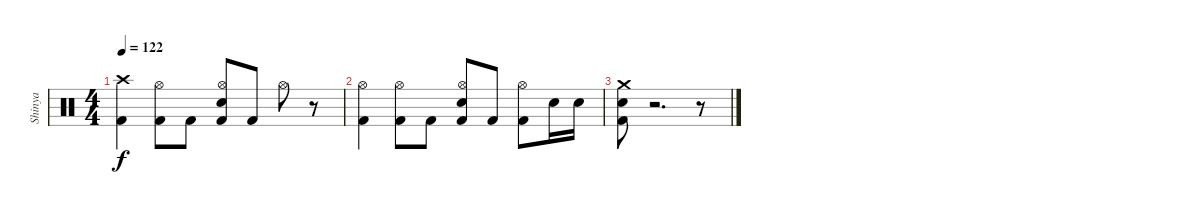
\track ("Shinya" "Shinya") {instrument percussion}
\staff {score}
\articulation defaults
\ts (4 4)
\tempo 122
\clef neutral
\ks c
("Crash high (hit)" "Kick (hit) 2").4{dy f} ("Hi-Hat (open)" "Kick (hit) 2").8 "Kick (hit) 2".8 ("Hi-Hat (open)" "Electric Snare (hit)" "Kick (hit) 2").8 "Kick (hit) 2".8 "Hi-Hat (open)".8 r.8 |
("Hi-Hat (open)" "Kick (hit) 2").4 ("Hi-Hat (open)" "Kick (hit) 2").8 "Kick (hit) 2".8 ("Hi-Hat (open)" "Electric Snare (hit)" "Kick (hit) 2").8 "Kick (hit) 2".8 ("Hi-Hat (open)" "Kick (hit) 2").8 "Electric Snare (hit)".16 "Electric Snare (hit)".16 |
("Crash medium (hit)" "Electric Snare (hit)" "Kick (hit) 2").8 r.2{d} r.8
